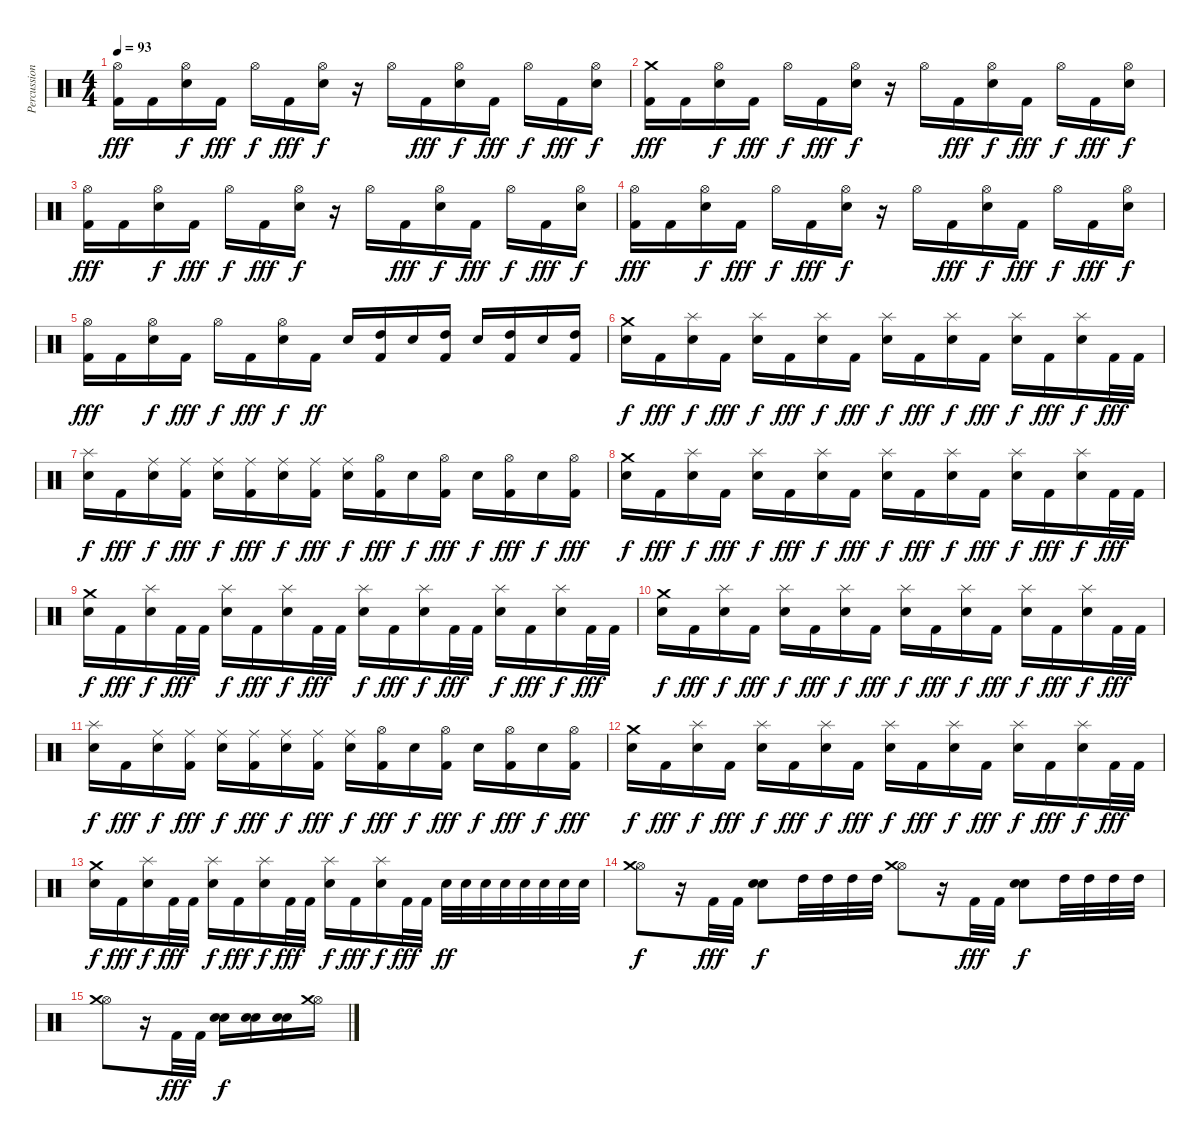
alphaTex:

\track ("Percussion" "Percussion") {instrument percussion}
\staff {score}
\articulation defaults
\ts (4 4)
\tempo 93
\clef neutral
\ks c
("Hi-Hat (open)" "Kick (hit) 2").16{dy fff} "Kick (hit) 2".16 ("Hi-Hat (open)" "Snare (hit) 2").16{dy f} "Kick (hit) 2".16{dy fff} "Hi-Hat (open)".16{dy f} "Kick (hit) 2".16{dy fff} ("Hi-Hat (open)" "Snare (hit) 2").16{dy f} r.16 "Hi-Hat (open)".16 "Kick (hit) 2".16{dy fff} ("Hi-Hat (open)" "Snare (hit) 2").16{dy f} "Kick (hit) 2".16{dy fff} "Hi-Hat (open)".16{dy f} "Kick (hit) 2".16{dy fff} ("Hi-Hat (open)" "Snare (hit) 2").16{dy f} |
("Crash medium (hit)" "Kick (hit) 2").16{dy fff} "Kick (hit) 2".16 ("Hi-Hat (open)" "Snare (hit) 2").16{dy f} "Kick (hit) 2".16{dy fff} "Hi-Hat (open)".16{dy f} "Kick (hit) 2".16{dy fff} ("Hi-Hat (open)" "Snare (hit) 2").16{dy f} r.16 "Hi-Hat (open)".16 "Kick (hit) 2".16{dy fff} ("Hi-Hat (open)" "Snare (hit) 2").16{dy f} "Kick (hit) 2".16{dy fff} "Hi-Hat (open)".16{dy f} "Kick (hit) 2".16{dy fff} ("Hi-Hat (open)" "Snare (hit) 2").16{dy f} |
("Hi-Hat (open)" "Kick (hit) 2").16{dy fff} "Kick (hit) 2".16 ("Hi-Hat (open)" "Snare (hit) 2").16{dy f} "Kick (hit) 2".16{dy fff} "Hi-Hat (open)".16{dy f} "Kick (hit) 2".16{dy fff} ("Hi-Hat (open)" "Snare (hit) 2").16{dy f} r.16 "Hi-Hat (open)".16 "Kick (hit) 2".16{dy fff} ("Hi-Hat (open)" "Snare (hit) 2").16{dy f} "Kick (hit) 2".16{dy fff} "Hi-Hat (open)".16{dy f} "Kick (hit) 2".16{dy fff} ("Hi-Hat (open)" "Snare (hit) 2").16{dy f} |
("Hi-Hat (open)" "Kick (hit) 2").16{dy fff} "Kick (hit) 2".16 ("Hi-Hat (open)" "Snare (hit) 2").16{dy f} "Kick (hit) 2".16{dy fff} "Hi-Hat (open)".16{dy f} "Kick (hit) 2".16{dy fff} ("Hi-Hat (open)" "Snare (hit) 2").16{dy f} r.16 "Hi-Hat (open)".16 "Kick (hit) 2".16{dy fff} ("Hi-Hat (open)" "Snare (hit) 2").16{dy f} "Kick (hit) 2".16{dy fff} "Hi-Hat (open)".16{dy f} "Kick (hit) 2".16{dy fff} ("Hi-Hat (open)" "Snare (hit) 2").16{dy f} |
("Hi-Hat (open)" "Kick (hit) 2").16{dy fff} "Kick (hit) 2".16 ("Hi-Hat (open)" "Snare (hit) 2").16{dy f} "Kick (hit) 2".16{dy fff} "Hi-Hat (open)".16{dy f} "Kick (hit) 2".16{dy fff} ("Hi-Hat (open)" "Snare (hit) 2").16{dy f} "Kick (hit) 2".16{dy ff} "Snare (hit) 2".16 ("High Tom (hit)" "Kick (hit) 2").16 "Snare (hit) 2".16 ("High Tom (hit)" "Kick (hit) 2").16 "Snare (hit) 2".16 ("High Tom (hit)" "Kick (hit) 2").16 "Snare (hit) 2".16 ("High Tom (hit)" "Kick (hit) 2").16 |
("Crash medium (hit)" "Snare (hit) 2").16{dy f} "Kick (hit) 2".16{dy fff} ("Splash (hit)" "Snare (hit) 2").16{dy f} "Kick (hit) 2".16{dy fff} ("Splash (hit)" "Snare (hit) 2").16{dy f} "Kick (hit) 2".16{dy fff} ("Splash (hit)" "Snare (hit) 2").16{dy f} "Kick (hit) 2".16{dy fff} ("Splash (hit)" "Snare (hit) 2").16{dy f} "Kick (hit) 2".16{dy fff} ("Splash (hit)" "Snare (hit) 2").16{dy f} "Kick (hit) 2".16{dy fff} ("Splash (hit)" "Snare (hit) 2").16{dy f} "Kick (hit) 2".16{dy fff} ("Splash (hit)" "Snare (hit) 2").16{dy f} "Kick (hit) 2".32{dy fff} "Kick (hit) 2".32 |
("Splash (hit)" "Snare (hit) 2").16{dy f} "Kick (hit) 2".16{dy fff} ("Ride (middle)" "Snare (hit) 2").16{dy f} ("Ride (middle)" "Kick (hit) 2").16{dy fff} ("Ride (middle)" "Snare (hit) 2").16{dy f} ("Ride (middle)" "Kick (hit) 2").16{dy fff} ("Ride (middle)" "Snare (hit) 2").16{dy f} ("Ride (middle)" "Kick (hit) 2").16{dy fff} ("Ride (middle)" "Snare (hit) 2").16{dy f} ("Hi-Hat (open)" "Kick (hit) 2").16{dy fff} "Snare (hit) 2".16{dy f} ("Hi-Hat (open)" "Kick (hit) 2").16{dy fff} "Snare (hit) 2".16{dy f} ("Hi-Hat (open)" "Kick (hit) 2").16{dy fff} "Snare (hit) 2".16{dy f} ("Hi-Hat (open)" "Kick (hit) 2").16{dy fff} |
("Crash medium (hit)" "Snare (hit) 2").16{dy f} "Kick (hit) 2".16{dy fff} ("Splash (hit)" "Snare (hit) 2").16{dy f} "Kick (hit) 2".16{dy fff} ("Splash (hit)" "Snare (hit) 2").16{dy f} "Kick (hit) 2".16{dy fff} ("Splash (hit)" "Snare (hit) 2").16{dy f} "Kick (hit) 2".16{dy fff} ("Splash (hit)" "Snare (hit) 2").16{dy f} "Kick (hit) 2".16{dy fff} ("Splash (hit)" "Snare (hit) 2").16{dy f} "Kick (hit) 2".16{dy fff} ("Splash (hit)" "Snare (hit) 2").16{dy f} "Kick (hit) 2".16{dy fff} ("Splash (hit)" "Snare (hit) 2").16{dy f} "Kick (hit) 2".32{dy fff} "Kick (hit) 2".32 |
("Crash medium (hit)" "Snare (hit) 2").16{dy f} "Kick (hit) 2".16{dy fff} ("Splash (hit)" "Snare (hit) 2").16{dy f} "Kick (hit) 2".32{dy fff} "Kick (hit) 2".32 ("Splash (hit)" "Snare (hit) 2").16{dy f} "Kick (hit) 2".16{dy fff} ("Splash (hit)" "Snare (hit) 2").16{dy f} "Kick (hit) 2".32{dy fff} "Kick (hit) 2".32 ("Splash (hit)" "Snare (hit) 2").16{dy f} "Kick (hit) 2".16{dy fff} ("Splash (hit)" "Snare (hit) 2").16{dy f} "Kick (hit) 2".32{dy fff} "Kick (hit) 2".32 ("Splash (hit)" "Snare (hit) 2").16{dy f} "Kick (hit) 2".16{dy fff} ("Splash (hit)" "Snare (hit) 2").16{dy f} "Kick (hit) 2".32{dy fff} "Kick (hit) 2".32 |
("Crash medium (hit)" "Snare (hit) 2").16{dy f} "Kick (hit) 2".16{dy fff} ("Splash (hit)" "Snare (hit) 2").16{dy f} "Kick (hit) 2".16{dy fff} ("Splash (hit)" "Snare (hit) 2").16{dy f} "Kick (hit) 2".16{dy fff} ("Splash (hit)" "Snare (hit) 2").16{dy f} "Kick (hit) 2".16{dy fff} ("Splash (hit)" "Snare (hit) 2").16{dy f} "Kick (hit) 2".16{dy fff} ("Splash (hit)" "Snare (hit) 2").16{dy f} "Kick (hit) 2".16{dy fff} ("Splash (hit)" "Snare (hit) 2").16{dy f} "Kick (hit) 2".16{dy fff} ("Splash (hit)" "Snare (hit) 2").16{dy f} "Kick (hit) 2".32{dy fff} "Kick (hit) 2".32 |
("Splash (hit)" "Snare (hit) 2").16{dy f} "Kick (hit) 2".16{dy fff} ("Ride (middle)" "Snare (hit) 2").16{dy f} ("Ride (middle)" "Kick (hit) 2").16{dy fff} ("Ride (middle)" "Snare (hit) 2").16{dy f} ("Ride (middle)" "Kick (hit) 2").16{dy fff} ("Ride (middle)" "Snare (hit) 2").16{dy f} ("Ride (middle)" "Kick (hit) 2").16{dy fff} ("Ride (middle)" "Snare (hit) 2").16{dy f} ("Hi-Hat (open)" "Kick (hit) 2").16{dy fff} "Snare (hit) 2".16{dy f} ("Hi-Hat (open)" "Kick (hit) 2").16{dy fff} "Snare (hit) 2".16{dy f} ("Hi-Hat (open)" "Kick (hit) 2").16{dy fff} "Snare (hit) 2".16{dy f} ("Hi-Hat (open)" "Kick (hit) 2").16{dy fff} |
("Crash medium (hit)" "Snare (hit) 2").16{dy f} "Kick (hit) 2".16{dy fff} ("Splash (hit)" "Snare (hit) 2").16{dy f} "Kick (hit) 2".16{dy fff} ("Splash (hit)" "Snare (hit) 2").16{dy f} "Kick (hit) 2".16{dy fff} ("Splash (hit)" "Snare (hit) 2").16{dy f} "Kick (hit) 2".16{dy fff} ("Splash (hit)" "Snare (hit) 2").16{dy f} "Kick (hit) 2".16{dy fff} ("Splash (hit)" "Snare (hit) 2").16{dy f} "Kick (hit) 2".16{dy fff} ("Splash (hit)" "Snare (hit) 2").16{dy f} "Kick (hit) 2".16{dy fff} ("Splash (hit)" "Snare (hit) 2").16{dy f} "Kick (hit) 2".32{dy fff} "Kick (hit) 2".32 |
("Crash medium (hit)" "Snare (hit) 2").16{dy f} "Kick (hit) 2".16{dy fff} ("Splash (hit)" "Snare (hit) 2").16{dy f} "Kick (hit) 2".32{dy fff} "Kick (hit) 2".32 ("Splash (hit)" "Snare (hit) 2").16{dy f} "Kick (hit) 2".16{dy fff} ("Splash (hit)" "Snare (hit) 2").16{dy f} "Kick (hit) 2".32{dy fff} "Kick (hit) 2".32 ("Splash (hit)" "Snare (hit) 2").16{dy f} "Kick (hit) 2".16{dy fff} ("Splash (hit)" "Snare (hit) 2").16{dy f} "Kick (hit) 2".32{dy fff} "Kick (hit) 2".32 "Snare (hit) 2".32{dy ff} "Snare (hit) 2".32 "Snare (hit) 2".32 "Snare (hit) 2".32 "Snare (hit) 2".32 "Snare (hit) 2".32 "Snare (hit) 2".32 "Snare (hit) 2".32 |
("Hi-Hat (open)" "Crash medium (hit)").8{dy f} r.16 "Kick (hit) 2".32{dy fff} "Kick (hit) 2".32 ("Snare (hit) 2" "Snare (hit) 2").8{bd 480 dy f} "High Tom (hit)".32 "High Tom (hit)".32 "High Tom (hit)".32 "High Tom (hit)".32 ("Hi-Hat (open)" "Crash medium (hit)").8 r.16 "Kick (hit) 2".32{dy fff} "Kick (hit) 2".32 ("Snare (hit) 2" "Snare (hit) 2").8{bd 480 dy f} "High Tom (hit)".32 "High Tom (hit)".32 "High Tom (hit)".32 "High Tom (hit)".32 |
("Hi-Hat (open)" "Crash medium (hit)").8 r.16 "Kick (hit) 2".32{dy fff} "Kick (hit) 2".32 ("Snare (hit) 2" "Snare (hit) 2").16{bd 480 dy f} ("Snare (hit) 2" "Snare (hit) 2").16{bd 480} ("Snare (hit) 2" "Snare (hit) 2").16{bd 480} ("Hi-Hat (open)" "Crash medium (hit)").16
